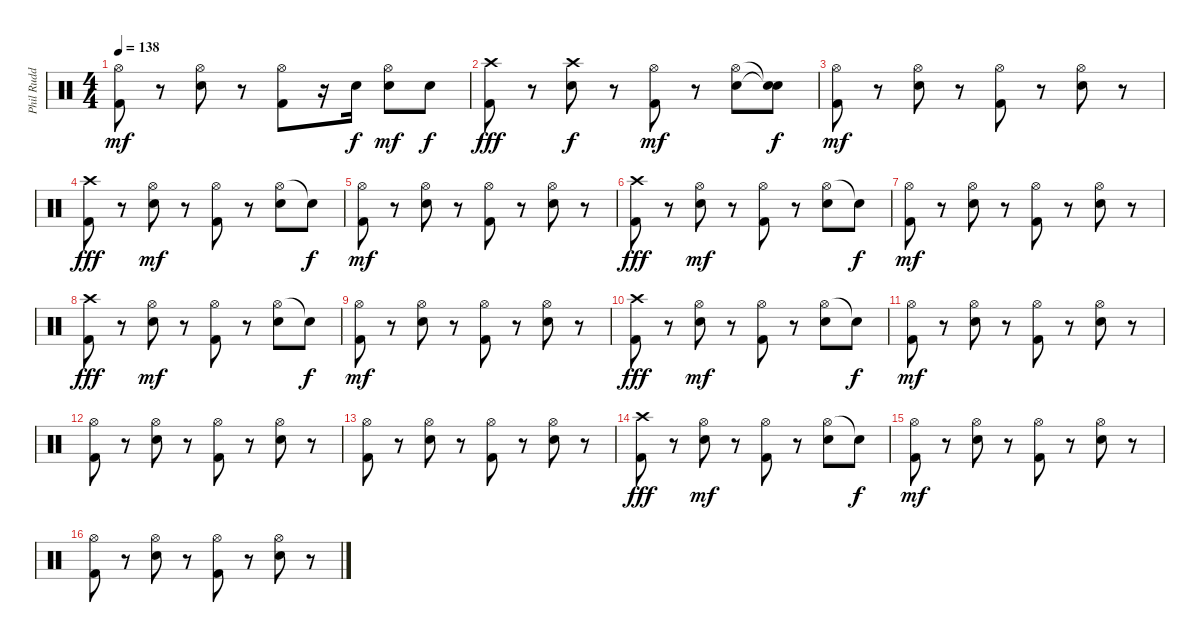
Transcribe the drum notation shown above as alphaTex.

\track ("Phil Rudd" "Phil Rudd") {instrument percussion}
\staff {score}
\articulation defaults
\ts (4 4)
\tempo 138
\clef neutral
\ks c
("Hi-Hat (open)" "Kick (hit) 2").8{dy mf} r.8 ("Hi-Hat (open)" "Snare (hit) 2").8 r.8 ("Hi-Hat (open)" "Kick (hit) 2").8 r.16 "Snare (hit) 2".16{dy f} ("Hi-Hat (open)" "Snare (hit) 2").8{dy mf} "Snare (hit) 2".8{dy f} |
("Crash high (hit)" "Kick (hit) 2").8{dy fff} r.8 ("Crash high (hit)" "Snare (hit) 2").8{dy f} r.8 ("Hi-Hat (open)" "Kick (hit) 2").8{dy mf} r.8 ("Hi-Hat (open)" "Snare (hit) 2").8 ("Snare (hit)"{t} "Snare (hit)"{t}).8{dy f} |
("Hi-Hat (open)" "Kick (hit) 2").8{dy mf} r.8 ("Hi-Hat (open)" "Snare (hit) 2").8 r.8 ("Hi-Hat (open)" "Kick (hit) 2").8 r.8 ("Hi-Hat (open)" "Snare (hit) 2").8 r.8 |
("Crash high (hit)" "Kick (hit) 2").8{dy fff} r.8 ("Hi-Hat (open)" "Snare (hit) 2").8{dy mf} r.8 ("Hi-Hat (open)" "Kick (hit) 2").8 r.8 ("Hi-Hat (open)" "Snare (hit) 2").8 "Snare (hit)"{t}.8{dy f} |
("Hi-Hat (open)" "Kick (hit) 2").8{dy mf} r.8 ("Hi-Hat (open)" "Snare (hit) 2").8 r.8 ("Hi-Hat (open)" "Kick (hit) 2").8 r.8 ("Hi-Hat (open)" "Snare (hit) 2").8 r.8 |
("Crash high (hit)" "Kick (hit) 2").8{dy fff} r.8 ("Hi-Hat (open)" "Snare (hit) 2").8{dy mf} r.8 ("Hi-Hat (open)" "Kick (hit) 2").8 r.8 ("Hi-Hat (open)" "Snare (hit) 2").8 "Snare (hit)"{t}.8{dy f} |
("Hi-Hat (open)" "Kick (hit) 2").8{dy mf} r.8 ("Hi-Hat (open)" "Snare (hit) 2").8 r.8 ("Hi-Hat (open)" "Kick (hit) 2").8 r.8 ("Hi-Hat (open)" "Snare (hit) 2").8 r.8 |
("Crash high (hit)" "Kick (hit) 2").8{dy fff} r.8 ("Hi-Hat (open)" "Snare (hit) 2").8{dy mf} r.8 ("Hi-Hat (open)" "Kick (hit) 2").8 r.8 ("Hi-Hat (open)" "Snare (hit) 2").8 "Snare (hit)"{t}.8{dy f} |
("Hi-Hat (open)" "Kick (hit) 2").8{dy mf} r.8 ("Hi-Hat (open)" "Snare (hit) 2").8 r.8 ("Hi-Hat (open)" "Kick (hit) 2").8 r.8 ("Hi-Hat (open)" "Snare (hit) 2").8 r.8 |
("Crash high (hit)" "Kick (hit) 2").8{dy fff} r.8 ("Hi-Hat (open)" "Snare (hit) 2").8{dy mf} r.8 ("Hi-Hat (open)" "Kick (hit) 2").8 r.8 ("Hi-Hat (open)" "Snare (hit) 2").8 "Snare (hit)"{t}.8{dy f} |
("Hi-Hat (open)" "Kick (hit) 2").8{dy mf} r.8 ("Hi-Hat (open)" "Snare (hit) 2").8 r.8 ("Hi-Hat (open)" "Kick (hit) 2").8 r.8 ("Hi-Hat (open)" "Snare (hit) 2").8 r.8 |
("Hi-Hat (open)" "Kick (hit) 2").8 r.8 ("Hi-Hat (open)" "Snare (hit) 2").8 r.8 ("Hi-Hat (open)" "Kick (hit) 2").8 r.8 ("Hi-Hat (open)" "Snare (hit) 2").8 r.8 |
("Hi-Hat (open)" "Kick (hit) 2").8 r.8 ("Hi-Hat (open)" "Snare (hit) 2").8 r.8 ("Hi-Hat (open)" "Kick (hit) 2").8 r.8 ("Hi-Hat (open)" "Snare (hit) 2").8 r.8 |
("Crash high (hit)" "Kick (hit) 2").8{dy fff} r.8 ("Hi-Hat (open)" "Snare (hit) 2").8{dy mf} r.8 ("Hi-Hat (open)" "Kick (hit) 2").8 r.8 ("Hi-Hat (open)" "Snare (hit) 2").8 "Snare (hit)"{t}.8{dy f} |
("Hi-Hat (open)" "Kick (hit) 2").8{dy mf} r.8 ("Hi-Hat (open)" "Snare (hit) 2").8 r.8 ("Hi-Hat (open)" "Kick (hit) 2").8 r.8 ("Hi-Hat (open)" "Snare (hit) 2").8 r.8 |
("Hi-Hat (open)" "Kick (hit) 2").8 r.8 ("Hi-Hat (open)" "Snare (hit) 2").8 r.8 ("Hi-Hat (open)" "Kick (hit) 2").8 r.8 ("Hi-Hat (open)" "Snare (hit) 2").8 r.8
